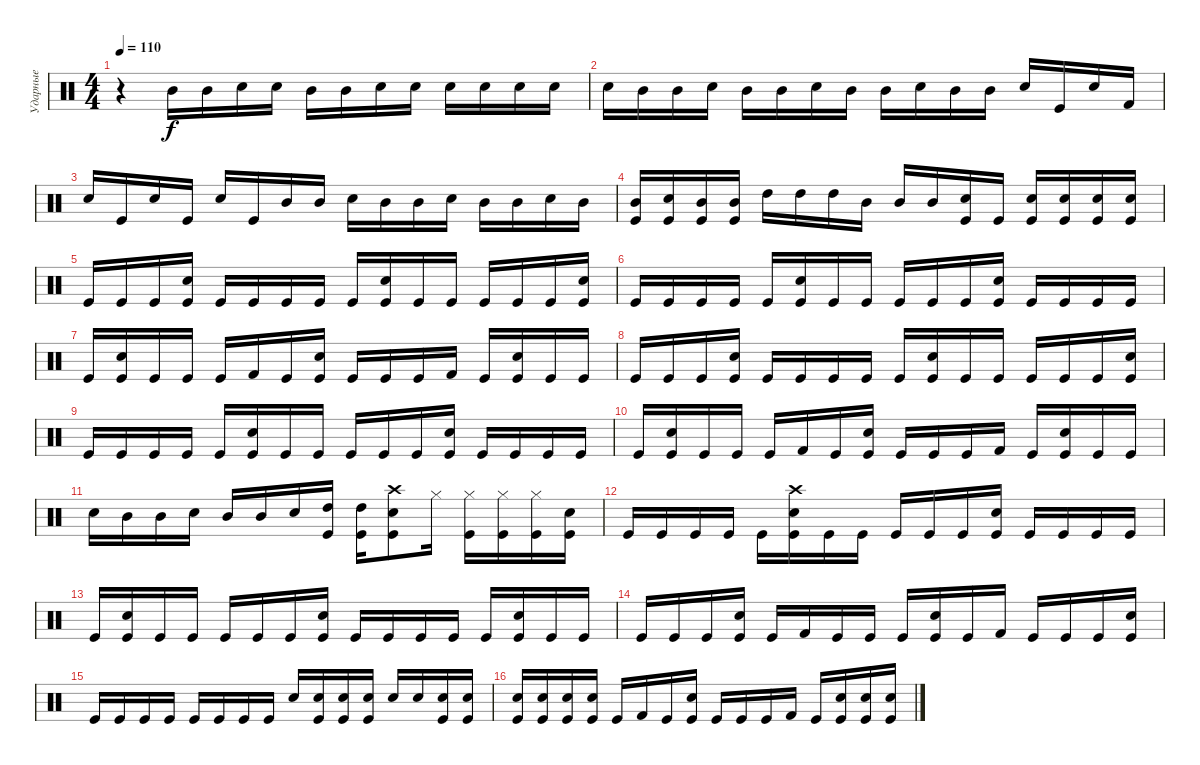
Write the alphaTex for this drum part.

\track ("Ударные" "Ударные") {instrument percussion}
\staff {score}
\articulation defaults
\ts (4 4)
\tempo 110
\clef neutral
\ks c
r.4{dy f} "Mid Tom (hit)".16 "Mid Tom (hit)".16 "Electric Snare (hit)".16 "Electric Snare (hit)".16 "Mid Tom (hit)".16 "Mid Tom (hit)".16 "Electric Snare (hit)".16 "Electric Snare (hit)".16 "Electric Snare (hit)".16 "Electric Snare (hit)".16 "Electric Snare (hit)".16 "Electric Snare (hit)".16 |
"Electric Snare (hit)".16 "Mid Tom (hit)".16 "Mid Tom (hit)".16 "Electric Snare (hit)".16 "Mid Tom (hit)".16 "Mid Tom (hit)".16 "Electric Snare (hit)".16 "Mid Tom (hit)".16 "Mid Tom (hit)".16 "Electric Snare (hit)".16 "Mid Tom (hit)".16 "Mid Tom (hit)".16 "Electric Snare (hit)".16 "Kick (hit)".16 "Electric Snare (hit)".16 "Kick (hit) 2".16 |
"Electric Snare (hit)".16 "Kick (hit)".16 "Electric Snare (hit)".16 "Kick (hit)".16 "Electric Snare (hit)".16 "Kick (hit)".16 "Mid Tom (hit)".16 "Mid Tom (hit)".16 "Electric Snare (hit)".16 "Mid Tom (hit)".16 "Mid Tom (hit)".16 "Electric Snare (hit)".16 "Mid Tom (hit)".16 "Mid Tom (hit)".16 "Electric Snare (hit)".16 "Mid Tom (hit)".16 |
("Mid Tom (hit)" "Kick (hit)").16 ("Electric Snare (hit)" "Kick (hit)").16 ("Mid Tom (hit)" "Kick (hit)").16 ("Mid Tom (hit)" "Kick (hit)").16 "High Tom (hit)".16 "High Tom (hit)".16 "High Tom (hit)".16 "Mid Tom (hit)".16 "Mid Tom (hit)".16 "Mid Tom (hit)".16 ("Electric Snare (hit)" "Kick (hit)").16 "Kick (hit)".16 ("Electric Snare (hit)" "Kick (hit)").16 ("Electric Snare (hit)" "Kick (hit)").16 ("Electric Snare (hit)" "Kick (hit)").16 ("Electric Snare (hit)" "Kick (hit)").16 |
"Kick (hit)".16 "Kick (hit)".16 "Kick (hit)".16 ("Electric Snare (hit)" "Kick (hit)").16 "Kick (hit)".16 "Kick (hit)".16 "Kick (hit)".16 "Kick (hit)".16 "Kick (hit)".16 ("Electric Snare (hit)" "Kick (hit)").16 "Kick (hit)".16 "Kick (hit)".16 "Kick (hit)".16 "Kick (hit)".16 "Kick (hit)".16 ("Electric Snare (hit)" "Kick (hit)").16 |
"Kick (hit)".16 "Kick (hit)".16 "Kick (hit)".16 "Kick (hit)".16 "Kick (hit)".16 ("Electric Snare (hit)" "Kick (hit)").16 "Kick (hit)".16 "Kick (hit)".16 "Kick (hit)".16 "Kick (hit)".16 "Kick (hit)".16 ("Electric Snare (hit)" "Kick (hit)").16 "Kick (hit)".16 "Kick (hit)".16 "Kick (hit)".16 "Kick (hit)".16 |
"Kick (hit)".16 ("Electric Snare (hit)" "Kick (hit)").16 "Kick (hit)".16 "Kick (hit)".16 "Kick (hit)".16 "Kick (hit) 2".16 "Kick (hit)".16 ("Electric Snare (hit)" "Kick (hit)").16 "Kick (hit)".16 "Kick (hit)".16 "Kick (hit)".16 "Kick (hit) 2".16 "Kick (hit)".16 ("Electric Snare (hit)" "Kick (hit)").16 "Kick (hit)".16 "Kick (hit)".16 |
"Kick (hit)".16 "Kick (hit)".16 "Kick (hit)".16 ("Electric Snare (hit)" "Kick (hit)").16 "Kick (hit)".16 "Kick (hit)".16 "Kick (hit)".16 "Kick (hit)".16 "Kick (hit)".16 ("Electric Snare (hit)" "Kick (hit)").16 "Kick (hit)".16 "Kick (hit)".16 "Kick (hit)".16 "Kick (hit)".16 "Kick (hit)".16 ("Electric Snare (hit)" "Kick (hit)").16 |
"Kick (hit)".16 "Kick (hit)".16 "Kick (hit)".16 "Kick (hit)".16 "Kick (hit)".16 ("Electric Snare (hit)" "Kick (hit)").16 "Kick (hit)".16 "Kick (hit)".16 "Kick (hit)".16 "Kick (hit)".16 "Kick (hit)".16 ("Electric Snare (hit)" "Kick (hit)").16 "Kick (hit)".16 "Kick (hit)".16 "Kick (hit)".16 "Kick (hit)".16 |
"Kick (hit)".16 ("Electric Snare (hit)" "Kick (hit)").16 "Kick (hit)".16 "Kick (hit)".16 "Kick (hit)".16 "Kick (hit) 2".16 "Kick (hit)".16 ("Electric Snare (hit)" "Kick (hit)").16 "Kick (hit)".16 "Kick (hit)".16 "Kick (hit)".16 "Kick (hit) 2".16 "Kick (hit)".16 ("Electric Snare (hit)" "Kick (hit)").16 "Kick (hit)".16 "Kick (hit)".16 |
"Electric Snare (hit)".16 "Mid Tom (hit)".16 "Mid Tom (hit)".16 "Electric Snare (hit)".16 "Mid Tom (hit)".16 "Mid Tom (hit)".16 "Electric Snare (hit)".16 ("High Tom (hit)" "Kick (hit)").16 ("High Tom (hit)" "Kick (hit)").16 ("Crash high (hit)" "Electric Snare (hit)" "Kick (hit)").8 "Hi-Hat (closed)".16 ("Hi-Hat (closed)" "Kick (hit)").16 ("Hi-Hat (closed)" "Kick (hit)").16 ("Hi-Hat (closed)" "Kick (hit)").16 ("Electric Snare (hit)" "Kick (hit)").16 |
"Kick (hit)".16 "Kick (hit)".16 "Kick (hit)".16 "Kick (hit)".16 "Kick (hit)".16 ("Crash high (hit)" "Electric Snare (hit)" "Kick (hit)").16 "Kick (hit)".16 "Kick (hit)".16 "Kick (hit)".16 "Kick (hit)".16 "Kick (hit)".16 ("Electric Snare (hit)" "Kick (hit)").16 "Kick (hit)".16 "Kick (hit)".16 "Kick (hit)".16 "Kick (hit)".16 |
"Kick (hit)".16 ("Electric Snare (hit)" "Kick (hit)").16 "Kick (hit)".16 "Kick (hit)".16 "Kick (hit)".16 "Kick (hit)".16 "Kick (hit)".16 ("Electric Snare (hit)" "Kick (hit)").16 "Kick (hit)".16 "Kick (hit)".16 "Kick (hit)".16 "Kick (hit)".16 "Kick (hit)".16 ("Electric Snare (hit)" "Kick (hit)").16 "Kick (hit)".16 "Kick (hit)".16 |
"Kick (hit)".16 "Kick (hit)".16 "Kick (hit)".16 ("Electric Snare (hit)" "Kick (hit)").16 "Kick (hit)".16 "Kick (hit) 2".16 "Kick (hit)".16 "Kick (hit)".16 "Kick (hit)".16 ("Electric Snare (hit)" "Kick (hit)").16 "Kick (hit)".16 "Kick (hit) 2".16 "Kick (hit)".16 "Kick (hit)".16 "Kick (hit)".16 ("Electric Snare (hit)" "Kick (hit)").16 |
"Kick (hit)".16 "Kick (hit)".16 "Kick (hit)".16 "Kick (hit)".16 "Kick (hit)".16 "Kick (hit)".16 "Kick (hit)".16 "Kick (hit)".16 "Electric Snare (hit)".16 ("Electric Snare (hit)" "Kick (hit)").16 ("Electric Snare (hit)" "Kick (hit)").16 ("Electric Snare (hit)" "Kick (hit)").16 "Electric Snare (hit)".16 "Electric Snare (hit)".16 ("Electric Snare (hit)" "Kick (hit)").16 ("Electric Snare (hit)" "Kick (hit)").16 |
("Electric Snare (hit)" "Kick (hit)").16 ("Electric Snare (hit)" "Kick (hit)").16 ("Electric Snare (hit)" "Kick (hit)").16 ("Electric Snare (hit)" "Kick (hit)").16 "Kick (hit)".16 "Kick (hit) 2".16 "Kick (hit)".16 ("Electric Snare (hit)" "Kick (hit)").16 "Kick (hit)".16 "Kick (hit)".16 "Kick (hit)".16 "Kick (hit) 2".16 "Kick (hit)".16 ("Electric Snare (hit)" "Kick (hit)").16 ("Electric Snare (hit)" "Kick (hit)").16 ("Electric Snare (hit)" "Kick (hit)").16
